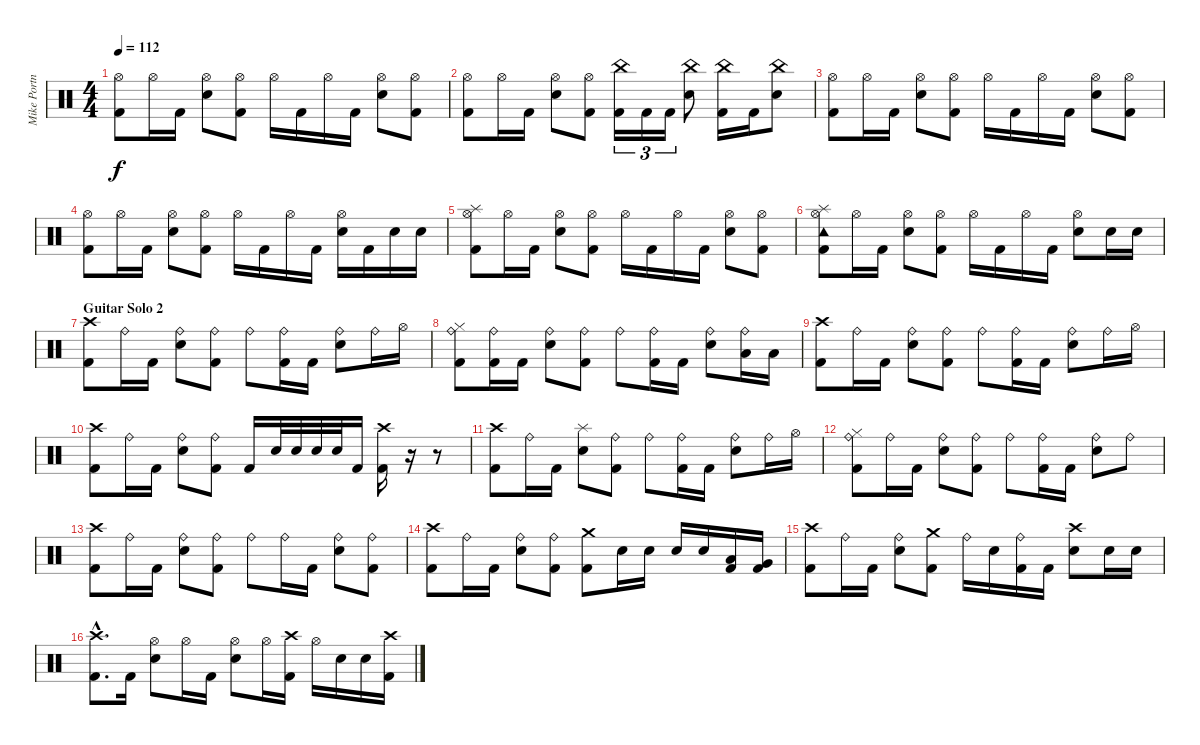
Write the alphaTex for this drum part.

\track ("Mike Portnoy" "Mike Portn") {instrument percussion}
\staff {score}
\articulation defaults
\ts (4 4)
\tempo 112
\clef neutral
\ks c
("Kick (hit) 2" "Hi-Hat (open)").8{dy f} "Hi-Hat (open)".16 "Kick (hit) 2".16 ("Electric Snare (hit)" "Hi-Hat (open)").8 ("Kick (hit) 2" "Hi-Hat (open)").8 "Hi-Hat (open)".16 "Kick (hit) 2".16 "Hi-Hat (open)".16 "Kick (hit) 2".16 ("Electric Snare (hit)" "Hi-Hat (open)").8 ("Kick (hit) 2" "Hi-Hat (open)").8 |
("Kick (hit) 2" "Hi-Hat (open)").8 "Hi-Hat (open)".16 "Kick (hit) 2".16 ("Electric Snare (hit)" "Hi-Hat (open)").8 ("Kick (hit) 2" "Hi-Hat (open)").8 ("Kick (hit) 2" "China (hit)").16{tu (3 2)} "Kick (hit) 2".16{tu (3 2)} "Kick (hit) 2".16{tu (3 2)} ("Electric Snare (hit)" "China (hit)").8 ("Kick (hit) 2" "China (hit)").16 "Kick (hit) 2".16 ("Electric Snare (hit)" "China (hit)").8 |
("Kick (hit) 2" "Hi-Hat (open)").8 "Hi-Hat (open)".16 "Kick (hit) 2".16 ("Electric Snare (hit)" "Hi-Hat (open)").8 ("Kick (hit) 2" "Hi-Hat (open)").8 "Hi-Hat (open)".16 "Kick (hit) 2".16 "Hi-Hat (open)".16 "Kick (hit) 2".16 ("Electric Snare (hit)" "Hi-Hat (open)").8 ("Kick (hit) 2" "Hi-Hat (open)").8 |
("Kick (hit) 2" "Hi-Hat (open)").8 "Hi-Hat (open)".16 "Kick (hit) 2".16 ("Electric Snare (hit)" "Hi-Hat (open)").8 ("Kick (hit) 2" "Hi-Hat (open)").8 "Hi-Hat (open)".16 "Kick (hit) 2".16 "Hi-Hat (open)".16 "Kick (hit) 2".16 ("Electric Snare (hit)" "Hi-Hat (open)").16 "Kick (hit) 2".16 "Electric Snare (hit)".16 "Electric Snare (hit)".16 |
("Kick (hit) 2" "Hi-Hat (open)" "Splash (hit)").8 "Hi-Hat (open)".16 "Kick (hit) 2".16 ("Electric Snare (hit)" "Hi-Hat (open)").8 ("Kick (hit) 2" "Hi-Hat (open)").8 "Hi-Hat (open)".16 "Kick (hit) 2".16 "Hi-Hat (open)".16 "Kick (hit) 2".16 ("Electric Snare (hit)" "Hi-Hat (open)").8 ("Kick (hit) 2" "Hi-Hat (open)").8 |
("Kick (hit) 2" "Hi-Hat (open)" "Tambourine (hit)" "Splash (hit)").8 "Hi-Hat (open)".16 "Kick (hit) 2".16 ("Electric Snare (hit)" "Hi-Hat (open)").8 ("Kick (hit) 2" "Hi-Hat (open)").8 "Hi-Hat (open)".16 "Kick (hit) 2".16 "Hi-Hat (open)".16 "Kick (hit) 2".16 ("Electric Snare (hit)" "Hi-Hat (open)").8 "Electric Snare (hit)".16 "Electric Snare (hit)".16 |
\section ("" "Guitar Solo 2")
("Kick (hit) 2" "Crash high (hit)").8 "Ride (bell)".16 "Kick (hit) 2".16 ("Electric Snare (hit)" "Ride (bell)").8 ("Kick (hit) 2" "Ride (bell)").8 "Ride (bell)".8 ("Kick (hit) 2" "Ride (bell)").16 "Kick (hit) 2".16 ("Electric Snare (hit)" "Ride (bell)").8 "Ride (bell)".16 "Hi-Hat (open)".16 |
("Kick (hit) 2" "Hi-Hat (closed)" "Ride (bell)").8 ("Kick (hit) 2" "Ride (bell)").16 "Kick (hit) 2".16 ("Electric Snare (hit)" "Ride (bell)").8 ("Kick (hit) 2" "Ride (bell)").8 "Ride (bell)".8 ("Kick (hit) 2" "Ride (bell)").16 "Kick (hit) 2".16 ("Electric Snare (hit)" "Ride (bell)").8 ("Low Tom (hit)" "Ride (bell)").16 "Low Tom (hit)".16 |
("Kick (hit) 2" "Crash high (hit)").8 "Ride (bell)".16 "Kick (hit) 2".16 ("Electric Snare (hit)" "Ride (bell)").8 ("Kick (hit) 2" "Ride (bell)").8 "Ride (bell)".8 ("Kick (hit) 2" "Ride (bell)").16 "Kick (hit) 2".16 ("Electric Snare (hit)" "Ride (bell)").8 "Ride (bell)".16 "Hi-Hat (open)".16 |
("Kick (hit) 2" "Crash high (hit)").8 "Ride (bell)".16 "Kick (hit) 2".16 ("Electric Snare (hit)" "Ride (bell)").8 ("Kick (hit) 2" "Ride (bell)").8 "Kick (hit) 2".16 "Electric Snare (hit)".32 "Electric Snare (hit)".32 "Electric Snare (hit)".32 "Electric Snare (hit)".32 "Kick (hit) 2".16 ("Kick (hit) 2" "Crash high (hit)").16 r.16 r.8 |
("Kick (hit) 2" "Crash high (hit)").8 "Ride (bell)".16 "Kick (hit) 2".16 ("Electric Snare (hit)" "Splash (hit)").8 ("Kick (hit) 2" "Ride (bell)").8 "Ride (bell)".8 ("Kick (hit) 2" "Ride (bell)").16 "Kick (hit) 2".16 ("Electric Snare (hit)" "Ride (bell)").8 "Ride (bell)".16 "Hi-Hat (open)".16 |
("Kick (hit) 2" "Hi-Hat (closed)" "Ride (bell)").8 "Ride (bell)".16 "Kick (hit) 2".16 ("Electric Snare (hit)" "Ride (bell)").8 ("Kick (hit) 2" "Ride (bell)").8 "Ride (bell)".8 ("Kick (hit) 2" "Ride (bell)").16 "Kick (hit) 2".16 ("Electric Snare (hit)" "Ride (bell)").8 "Ride (bell)".8 |
("Kick (hit) 2" "Crash high (hit)").8 "Ride (bell)".16 "Kick (hit) 2".16 ("Electric Snare (hit)" "Ride (bell)").8 ("Kick (hit) 2" "Ride (bell)").8 "Ride (bell)".8 "Ride (bell)".16 "Kick (hit) 2".16 ("Electric Snare (hit)" "Ride (bell)").8 ("Kick (hit) 2" "Ride (bell)").8 |
("Kick (hit) 2" "Crash high (hit)").8 "Ride (bell)".16 "Kick (hit) 2".16 ("Electric Snare (hit)" "Ride (bell)").8 ("Kick (hit) 2" "Ride (bell)").8 ("Kick (hit) 2" "Crash medium (hit)").8 "Electric Snare (hit)".16 "Electric Snare (hit)".16 "Electric Snare (hit)".16 "Electric Snare (hit)".16 ("Kick (hit) 2" "Low Tom (hit)").16 ("Kick (hit) 2" "Very Low Tom (hit)").16 |
("Kick (hit) 2" "Crash high (hit)").8 "Ride (bell)".16 "Kick (hit) 2".16 ("Electric Snare (hit)" "Ride (bell)").8 ("Kick (hit) 2" "Crash medium (hit)").8 "Ride (bell)".16 "Electric Snare (hit)".16 ("Kick (hit) 2" "Ride (bell)").16 "Kick (hit) 2".16 ("Electric Snare (hit)" "Crash high (hit)").8 "Electric Snare (hit)".16 "Electric Snare (hit)".16 |
("Kick (hit) 2"{hac} "Crash high (hit)"{hac}).8{d} "Kick (hit) 2".16 ("Electric Snare (hit)" "Hi-Hat (open)").8 "Hi-Hat (open)".16 "Kick (hit) 2".16 ("Electric Snare (hit)" "Hi-Hat (open)").8 "Hi-Hat (open)".16 ("Kick (hit) 2" "Crash high (hit)").16 "Hi-Hat (open)".16 "Electric Snare (hit)".16 "Electric Snare (hit)".16 ("Kick (hit) 2" "Crash high (hit)").16
